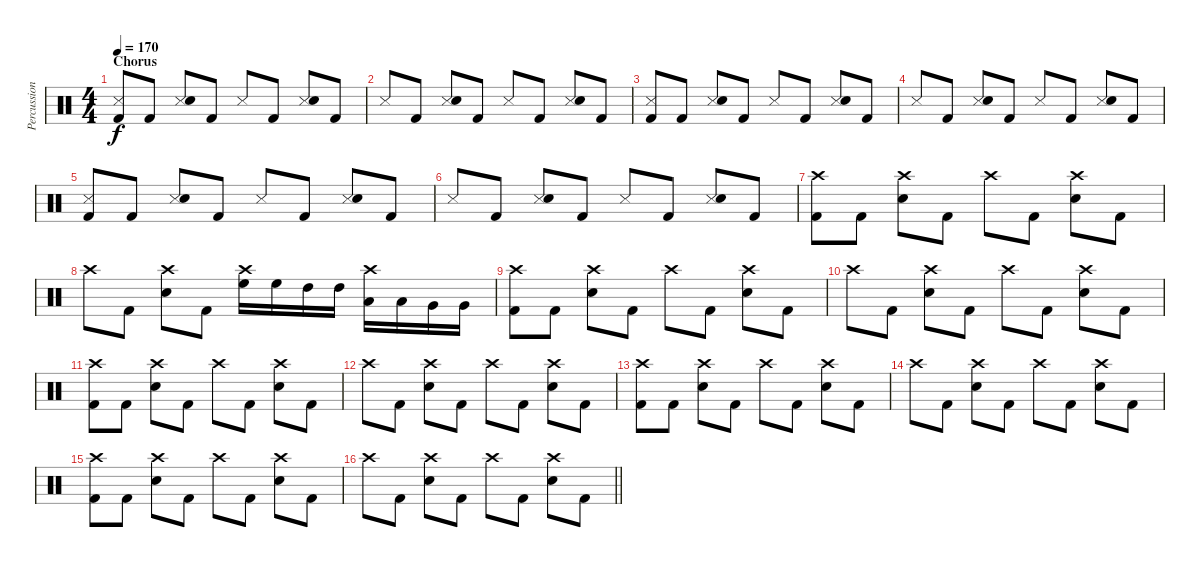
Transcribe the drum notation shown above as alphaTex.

\track ("Percussion" "Percussion") {instrument percussion}
\staff {score}
\articulation defaults
\ts (4 4)
\section ("" "Chorus")
\tempo 170
\clef neutral
\ks c
("Snare (side stick) 3" "Kick (hit) 2").8{dy f} "Kick (hit) 2".8 ("Snare (side stick) 3" "Electric Snare (hit)").8 "Kick (hit) 2".8 "Snare (side stick) 3".8 "Kick (hit) 2".8 ("Snare (side stick) 3" "Electric Snare (hit)").8 "Kick (hit) 2".8 |
"Snare (side stick) 3".8 "Kick (hit) 2".8 ("Snare (side stick) 3" "Electric Snare (hit)").8 "Kick (hit) 2".8 "Snare (side stick) 3".8 "Kick (hit) 2".8 ("Snare (side stick) 3" "Electric Snare (hit)").8 "Kick (hit) 2".8 |
("Snare (side stick) 3" "Kick (hit) 2").8 "Kick (hit) 2".8 ("Snare (side stick) 3" "Electric Snare (hit)").8 "Kick (hit) 2".8 "Snare (side stick) 3".8 "Kick (hit) 2".8 ("Snare (side stick) 3" "Electric Snare (hit)").8 "Kick (hit) 2".8 |
"Snare (side stick) 3".8 "Kick (hit) 2".8 ("Snare (side stick) 3" "Electric Snare (hit)").8 "Kick (hit) 2".8 "Snare (side stick) 3".8 "Kick (hit) 2".8 ("Snare (side stick) 3" "Electric Snare (hit)").8 "Kick (hit) 2".8 |
("Snare (side stick) 3" "Kick (hit) 2").8 "Kick (hit) 2".8 ("Snare (side stick) 3" "Electric Snare (hit)").8 "Kick (hit) 2".8 "Snare (side stick) 3".8 "Kick (hit) 2".8 ("Snare (side stick) 3" "Electric Snare (hit)").8 "Kick (hit) 2".8 |
"Snare (side stick) 3".8 "Kick (hit) 2".8 ("Snare (side stick) 3" "Electric Snare (hit)").8 "Kick (hit) 2".8 "Snare (side stick) 3".8 "Kick (hit) 2".8 ("Snare (side stick) 3" "Electric Snare (hit)").8 "Kick (hit) 2".8 |
("Crash high (hit)" "Kick (hit) 2").8 "Kick (hit) 2".8 ("Crash high (hit)" "Electric Snare (hit)").8 "Kick (hit) 2".8 "Crash high (hit)".8 "Kick (hit) 2".8 ("Crash high (hit)" "Electric Snare (hit)").8 "Kick (hit) 2".8 |
"Crash high (hit)".8 "Kick (hit) 2".8 ("Crash high (hit)" "Electric Snare (hit)").8 "Kick (hit) 2".8 ("Crash high (hit)" "High Floor Tom (hit)").16 "High Floor Tom (hit)".16 "High Tom (hit)".16 "High Tom (hit)".16 ("Crash high (hit)" "Low Tom (hit)").16 "Low Tom (hit)".16 "Very Low Tom (hit)".16 "Very Low Tom (hit)".16 |
("Crash high (hit)" "Kick (hit) 2").8 "Kick (hit) 2".8 ("Crash high (hit)" "Electric Snare (hit)").8 "Kick (hit) 2".8 "Crash high (hit)".8 "Kick (hit) 2".8 ("Crash high (hit)" "Electric Snare (hit)").8 "Kick (hit) 2".8 |
"Crash high (hit)".8 "Kick (hit) 2".8 ("Crash high (hit)" "Electric Snare (hit)").8 "Kick (hit) 2".8 "Crash high (hit)".8 "Kick (hit) 2".8 ("Crash high (hit)" "Electric Snare (hit)").8 "Kick (hit) 2".8 |
("Crash high (hit)" "Kick (hit) 2").8 "Kick (hit) 2".8 ("Crash high (hit)" "Electric Snare (hit)").8 "Kick (hit) 2".8 "Crash high (hit)".8 "Kick (hit) 2".8 ("Crash high (hit)" "Electric Snare (hit)").8 "Kick (hit) 2".8 |
"Crash high (hit)".8 "Kick (hit) 2".8 ("Crash high (hit)" "Electric Snare (hit)").8 "Kick (hit) 2".8 "Crash high (hit)".8 "Kick (hit) 2".8 ("Crash high (hit)" "Electric Snare (hit)").8 "Kick (hit) 2".8 |
("Crash high (hit)" "Kick (hit) 2").8 "Kick (hit) 2".8 ("Crash high (hit)" "Electric Snare (hit)").8 "Kick (hit) 2".8 "Crash high (hit)".8 "Kick (hit) 2".8 ("Crash high (hit)" "Electric Snare (hit)").8 "Kick (hit) 2".8 |
"Crash high (hit)".8 "Kick (hit) 2".8 ("Crash high (hit)" "Electric Snare (hit)").8 "Kick (hit) 2".8 "Crash high (hit)".8 "Kick (hit) 2".8 ("Crash high (hit)" "Electric Snare (hit)").8 "Kick (hit) 2".8 |
("Crash high (hit)" "Kick (hit) 2").8 "Kick (hit) 2".8 ("Crash high (hit)" "Electric Snare (hit)").8 "Kick (hit) 2".8 "Crash high (hit)".8 "Kick (hit) 2".8 ("Crash high (hit)" "Electric Snare (hit)").8 "Kick (hit) 2".8 |
\barLineRight lightlight "Crash high (hit)".8 "Kick (hit) 2".8
("Crash high (hit)" "Electric Snare (hit)").8 "Kick (hit) 2".8 "Crash high (hit)".8 "Kick (hit) 2".8 ("Crash high (hit)" "Electric Snare (hit)").8 "Kick (hit) 2".8
